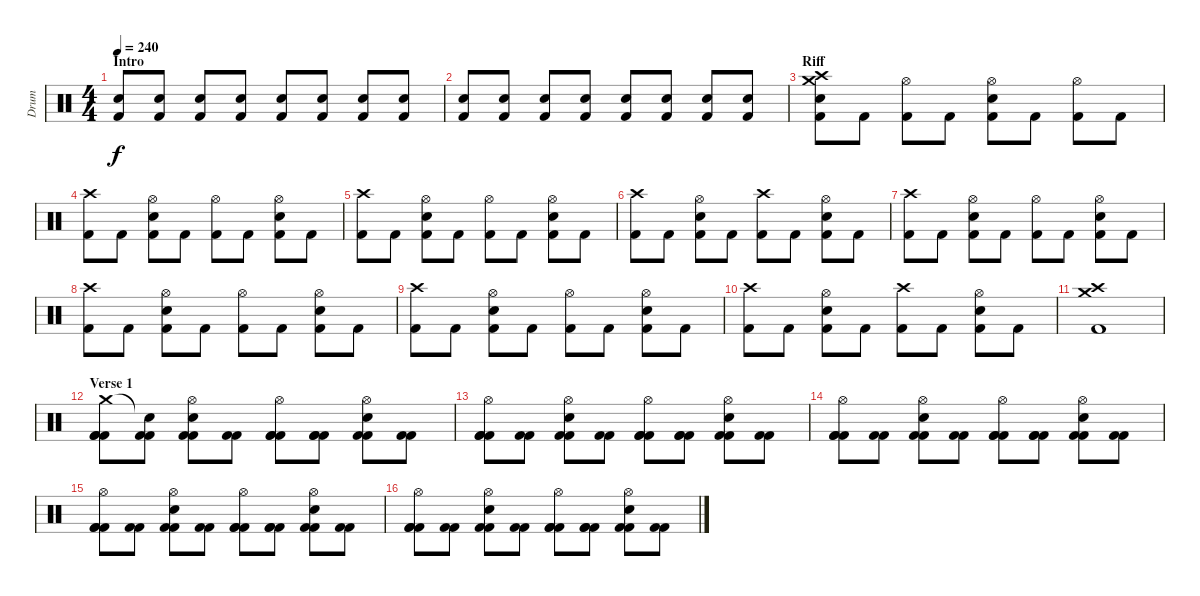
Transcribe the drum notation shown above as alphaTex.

\track ("Drum" "Drum") {instrument percussion}
\staff {score}
\articulation defaults
\ts (4 4)
\section ("" "Intro")
\tempo 240
\clef neutral
\ks c
("Kick (hit) 2" "Electric Snare (hit)").8{dy f} ("Kick (hit) 2" "Electric Snare (hit)").8 ("Kick (hit) 2" "Electric Snare (hit)").8 ("Kick (hit) 2" "Electric Snare (hit)").8 ("Kick (hit) 2" "Electric Snare (hit)").8 ("Kick (hit) 2" "Electric Snare (hit)").8 ("Kick (hit) 2" "Electric Snare (hit)").8 ("Kick (hit) 2" "Electric Snare (hit)").8 |
("Kick (hit) 2" "Electric Snare (hit)").8 ("Kick (hit) 2" "Electric Snare (hit)").8 ("Kick (hit) 2" "Electric Snare (hit)").8 ("Kick (hit) 2" "Electric Snare (hit)").8 ("Kick (hit) 2" "Electric Snare (hit)").8 ("Kick (hit) 2" "Electric Snare (hit)").8 ("Kick (hit) 2" "Electric Snare (hit)").8 ("Kick (hit) 2" "Electric Snare (hit)").8 |
\section ("" "Riff")
("Crash high (hit)" "Kick (hit) 2" "Crash medium (hit)" "Electric Snare (hit)").8 "Kick (hit) 2".8 ("Hi-Hat (open)" "Kick (hit) 2").8 "Kick (hit) 2".8 ("Hi-Hat (open)" "Kick (hit) 2" "Electric Snare (hit)").8 "Kick (hit) 2".8 ("Hi-Hat (open)" "Kick (hit) 2").8 "Kick (hit) 2".8 |
("Crash high (hit)" "Kick (hit) 2").8 "Kick (hit) 2".8 ("Hi-Hat (open)" "Kick (hit) 2" "Electric Snare (hit)").8 "Kick (hit) 2".8 ("Hi-Hat (open)" "Kick (hit) 2").8 "Kick (hit) 2".8 ("Hi-Hat (open)" "Kick (hit) 2" "Electric Snare (hit)").8 "Kick (hit) 2".8 |
("Crash high (hit)" "Kick (hit) 2").8 "Kick (hit) 2".8 ("Hi-Hat (open)" "Kick (hit) 2" "Electric Snare (hit)").8 "Kick (hit) 2".8 ("Hi-Hat (open)" "Kick (hit) 2").8 "Kick (hit) 2".8 ("Hi-Hat (open)" "Kick (hit) 2" "Electric Snare (hit)").8 "Kick (hit) 2".8 |
("Crash high (hit)" "Kick (hit) 2").8 "Kick (hit) 2".8 ("Hi-Hat (open)" "Kick (hit) 2" "Electric Snare (hit)").8 "Kick (hit) 2".8 ("Crash high (hit)" "Kick (hit) 2").8 "Kick (hit) 2".8 ("Hi-Hat (open)" "Kick (hit) 2" "Electric Snare (hit)").8 "Kick (hit) 2".8 |
("Crash high (hit)" "Kick (hit) 2").8 "Kick (hit) 2".8 ("Hi-Hat (open)" "Kick (hit) 2" "Electric Snare (hit)").8 "Kick (hit) 2".8 ("Hi-Hat (open)" "Kick (hit) 2").8 "Kick (hit) 2".8 ("Hi-Hat (open)" "Kick (hit) 2" "Electric Snare (hit)").8 "Kick (hit) 2".8 |
("Crash high (hit)" "Kick (hit) 2").8 "Kick (hit) 2".8 ("Hi-Hat (open)" "Kick (hit) 2" "Electric Snare (hit)").8 "Kick (hit) 2".8 ("Hi-Hat (open)" "Kick (hit) 2").8 "Kick (hit) 2".8 ("Hi-Hat (open)" "Kick (hit) 2" "Electric Snare (hit)").8 "Kick (hit) 2".8 |
("Crash high (hit)" "Kick (hit) 2").8 "Kick (hit) 2".8 ("Hi-Hat (open)" "Kick (hit) 2" "Electric Snare (hit)").8 "Kick (hit) 2".8 ("Hi-Hat (open)" "Kick (hit) 2").8 "Kick (hit) 2".8 ("Hi-Hat (open)" "Kick (hit) 2" "Electric Snare (hit)").8 "Kick (hit) 2".8 |
("Crash high (hit)" "Kick (hit) 2").8 "Kick (hit) 2".8 ("Hi-Hat (open)" "Kick (hit) 2" "Electric Snare (hit)").8 "Kick (hit) 2".8 ("Crash high (hit)" "Kick (hit) 2").8 "Kick (hit) 2".8 ("Hi-Hat (open)" "Kick (hit) 2" "Electric Snare (hit)").8 "Kick (hit) 2".8 |
("Crash high (hit)" "Kick (hit) 2" "Crash medium (hit)").1 |
\section ("" "Verse 1")
("Crash medium (hit)" "Kick (hit) 2" "Kick (hit) 2" "Kick (hit) 2").8 ("Snare (hit)"{t} "Kick (hit) 2" "Kick (hit) 2").8 ("Hi-Hat (open)" "Electric Snare (hit)" "Kick (hit) 2" "Kick (hit) 2").8 ("Kick (hit) 2" "Kick (hit) 2").8 ("Hi-Hat (open)" "Kick (hit) 2" "Kick (hit) 2" "Kick (hit) 2").8 ("Kick (hit) 2" "Kick (hit) 2" "Kick (hit) 2").8 ("Hi-Hat (open)" "Electric Snare (hit)" "Kick (hit) 2" "Kick (hit) 2").8 ("Kick (hit) 2" "Kick (hit) 2").8 |
("Hi-Hat (open)" "Kick (hit) 2" "Kick (hit) 2" "Kick (hit) 2").8 ("Kick (hit) 2" "Kick (hit) 2").8 ("Hi-Hat (open)" "Electric Snare (hit)" "Kick (hit) 2" "Kick (hit) 2").8 ("Kick (hit) 2" "Kick (hit) 2").8 ("Hi-Hat (open)" "Kick (hit) 2" "Kick (hit) 2" "Kick (hit) 2").8 ("Kick (hit) 2" "Kick (hit) 2" "Kick (hit) 2").8 ("Hi-Hat (open)" "Electric Snare (hit)" "Kick (hit) 2" "Kick (hit) 2").8 ("Kick (hit) 2" "Kick (hit) 2").8 |
("Hi-Hat (open)" "Kick (hit) 2" "Kick (hit) 2" "Kick (hit) 2").8 ("Kick (hit) 2" "Kick (hit) 2").8 ("Hi-Hat (open)" "Electric Snare (hit)" "Kick (hit) 2" "Kick (hit) 2").8 ("Kick (hit) 2" "Kick (hit) 2").8 ("Hi-Hat (open)" "Kick (hit) 2" "Kick (hit) 2" "Kick (hit) 2").8 ("Kick (hit) 2" "Kick (hit) 2" "Kick (hit) 2").8 ("Hi-Hat (open)" "Electric Snare (hit)" "Kick (hit) 2" "Kick (hit) 2").8 ("Kick (hit) 2" "Kick (hit) 2").8 |
("Hi-Hat (open)" "Kick (hit) 2" "Kick (hit) 2" "Kick (hit) 2").8 ("Kick (hit) 2" "Kick (hit) 2").8 ("Hi-Hat (open)" "Electric Snare (hit)" "Kick (hit) 2" "Kick (hit) 2").8 ("Kick (hit) 2" "Kick (hit) 2").8 ("Hi-Hat (open)" "Kick (hit) 2" "Kick (hit) 2" "Kick (hit) 2").8 ("Kick (hit) 2" "Kick (hit) 2" "Kick (hit) 2").8 ("Hi-Hat (open)" "Electric Snare (hit)" "Kick (hit) 2" "Kick (hit) 2").8 ("Kick (hit) 2" "Kick (hit) 2").8 |
("Hi-Hat (open)" "Kick (hit) 2" "Kick (hit) 2" "Kick (hit) 2").8 ("Kick (hit) 2" "Kick (hit) 2").8 ("Hi-Hat (open)" "Electric Snare (hit)" "Kick (hit) 2" "Kick (hit) 2").8 ("Kick (hit) 2" "Kick (hit) 2").8 ("Hi-Hat (open)" "Kick (hit) 2" "Kick (hit) 2" "Kick (hit) 2").8 ("Kick (hit) 2" "Kick (hit) 2" "Kick (hit) 2").8 ("Hi-Hat (open)" "Electric Snare (hit)" "Kick (hit) 2" "Kick (hit) 2").8 ("Kick (hit) 2" "Kick (hit) 2").8
